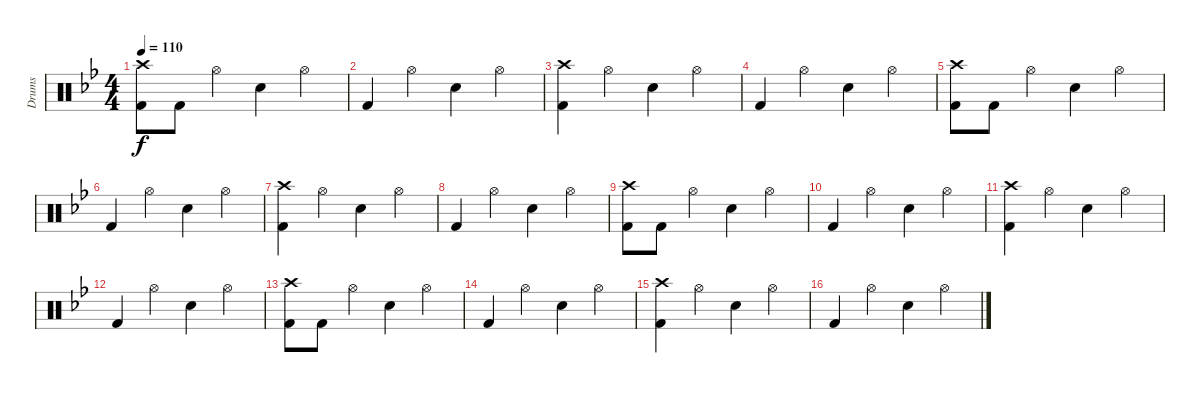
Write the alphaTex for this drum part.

\track ("Drums" "Drums") {instrument percussion}
\staff {score}
\articulation defaults
\ts (4 4)
\tempo 110
\clef neutral
\ks gminor
("Crash high (hit)" "Kick (hit) 2").8{dy f} "Kick (hit) 2".8 "Hi-Hat (open)".4 "Snare (hit) 2".4 "Hi-Hat (open)".4 |
"Kick (hit) 2".4 "Hi-Hat (open)".4 "Snare (hit) 2".4 "Hi-Hat (open)".4 |
("Crash high (hit)" "Kick (hit) 2").4 "Hi-Hat (open)".4 "Snare (hit) 2".4 "Hi-Hat (open)".4 |
"Kick (hit) 2".4 "Hi-Hat (open)".4 "Snare (hit) 2".4 "Hi-Hat (open)".4 |
("Crash high (hit)" "Kick (hit) 2").8 "Kick (hit) 2".8 "Hi-Hat (open)".4 "Snare (hit) 2".4 "Hi-Hat (open)".4 |
"Kick (hit) 2".4 "Hi-Hat (open)".4 "Snare (hit) 2".4 "Hi-Hat (open)".4 |
("Crash high (hit)" "Kick (hit) 2").4 "Hi-Hat (open)".4 "Snare (hit) 2".4 "Hi-Hat (open)".4 |
"Kick (hit) 2".4 "Hi-Hat (open)".4 "Snare (hit) 2".4 "Hi-Hat (open)".4 |
("Crash high (hit)" "Kick (hit) 2").8 "Kick (hit) 2".8 "Hi-Hat (open)".4 "Snare (hit) 2".4 "Hi-Hat (open)".4 |
"Kick (hit) 2".4 "Hi-Hat (open)".4 "Snare (hit) 2".4 "Hi-Hat (open)".4 |
("Crash high (hit)" "Kick (hit) 2").4 "Hi-Hat (open)".4 "Snare (hit) 2".4 "Hi-Hat (open)".4 |
"Kick (hit) 2".4 "Hi-Hat (open)".4 "Snare (hit) 2".4 "Hi-Hat (open)".4 |
("Crash high (hit)" "Kick (hit) 2").8 "Kick (hit) 2".8 "Hi-Hat (open)".4 "Snare (hit) 2".4 "Hi-Hat (open)".4 |
"Kick (hit) 2".4 "Hi-Hat (open)".4 "Snare (hit) 2".4 "Hi-Hat (open)".4 |
("Crash high (hit)" "Kick (hit) 2").4 "Hi-Hat (open)".4 "Snare (hit) 2".4 "Hi-Hat (open)".4 |
"Kick (hit) 2".4 "Hi-Hat (open)".4 "Snare (hit) 2".4 "Hi-Hat (open)".4
